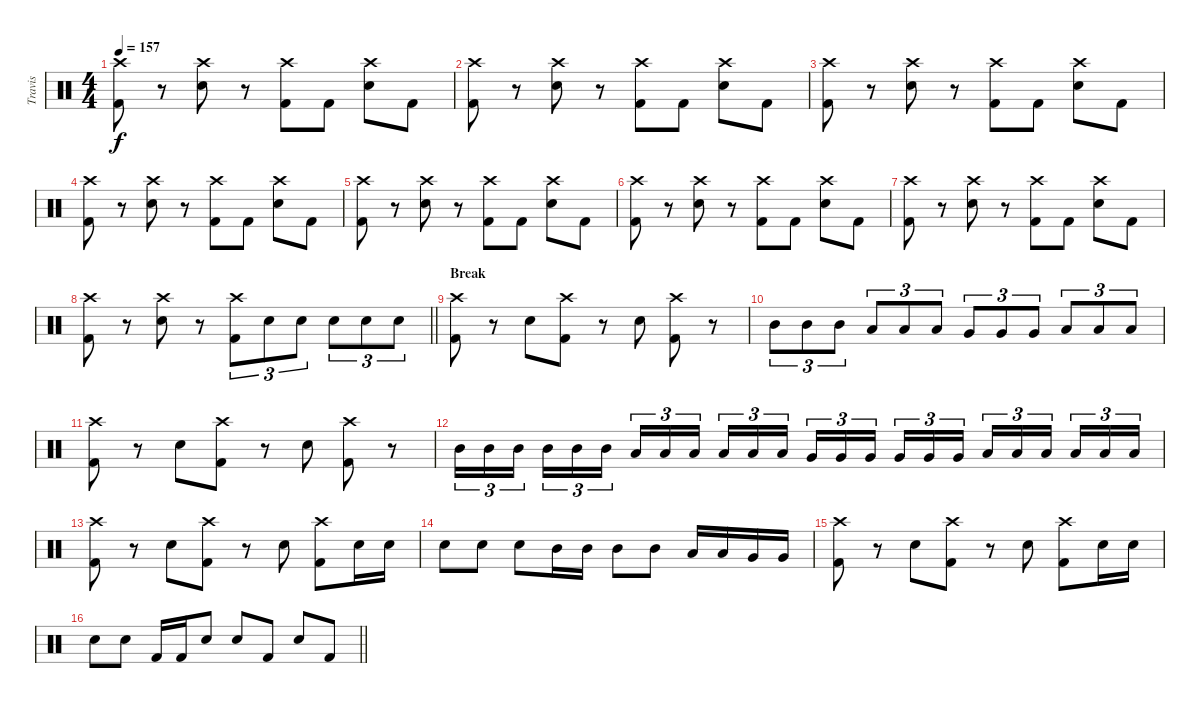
\track ("Travis" "Travis") {instrument percussion}
\staff {score}
\articulation defaults
\ts (4 4)
\tempo 157
\clef neutral
\ks c
("Crash high (hit)" "Kick (hit) 2").8{dy f} r.8 ("Crash high (hit)" "Electric Snare (hit)").8 r.8 ("Crash high (hit)" "Kick (hit) 2").8 "Kick (hit) 2".8 ("Crash high (hit)" "Electric Snare (hit)").8 "Kick (hit) 2".8 |
("Crash high (hit)" "Kick (hit) 2").8 r.8 ("Crash high (hit)" "Electric Snare (hit)").8 r.8 ("Crash high (hit)" "Kick (hit) 2").8 "Kick (hit) 2".8 ("Crash high (hit)" "Electric Snare (hit)").8 "Kick (hit) 2".8 |
("Crash high (hit)" "Kick (hit) 2").8 r.8 ("Crash high (hit)" "Electric Snare (hit)").8 r.8 ("Crash high (hit)" "Kick (hit) 2").8 "Kick (hit) 2".8 ("Crash high (hit)" "Electric Snare (hit)").8 "Kick (hit) 2".8 |
("Crash high (hit)" "Kick (hit) 2").8 r.8 ("Crash high (hit)" "Electric Snare (hit)").8 r.8 ("Crash high (hit)" "Kick (hit) 2").8 "Kick (hit) 2".8 ("Crash high (hit)" "Electric Snare (hit)").8 "Kick (hit) 2".8 |
("Crash high (hit)" "Kick (hit) 2").8 r.8 ("Crash high (hit)" "Electric Snare (hit)").8 r.8 ("Crash high (hit)" "Kick (hit) 2").8 "Kick (hit) 2".8 ("Crash high (hit)" "Electric Snare (hit)").8 "Kick (hit) 2".8 |
("Crash high (hit)" "Kick (hit) 2").8 r.8 ("Crash high (hit)" "Electric Snare (hit)").8 r.8 ("Crash high (hit)" "Kick (hit) 2").8 "Kick (hit) 2".8 ("Crash high (hit)" "Electric Snare (hit)").8 "Kick (hit) 2".8 |
("Crash high (hit)" "Kick (hit) 2").8 r.8 ("Crash high (hit)" "Electric Snare (hit)").8 r.8 ("Crash high (hit)" "Kick (hit) 2").8 "Kick (hit) 2".8 ("Crash high (hit)" "Electric Snare (hit)").8 "Kick (hit) 2".8 |
\barLineRight lightlight
("Crash high (hit)" "Kick (hit) 2").8 r.8 ("Crash high (hit)" "Electric Snare (hit)").8 r.8 ("Crash high (hit)" "Kick (hit) 2").8{tu (3 2)} "Electric Snare (hit)".8{tu (3 2)} "Electric Snare (hit)".8{tu (3 2)} "Electric Snare (hit)".8{tu (3 2)} "Electric Snare (hit)".8{tu (3 2)} "Electric Snare (hit)".8{tu (3 2)} |
\section ("" "Break")
("Crash high (hit)" "Kick (hit) 2").8 r.8 "Electric Snare (hit)".8 ("Crash high (hit)" "Kick (hit) 2").8 r.8 "Electric Snare (hit)".8 ("Crash high (hit)" "Kick (hit) 2").8 r.8 |
"Mid Tom (hit)".8{tu (3 2)} "Mid Tom (hit)".8{tu (3 2)} "Mid Tom (hit)".8{tu (3 2)} "Low Tom (hit)".8{tu (3 2)} "Low Tom (hit)".8{tu (3 2)} "Low Tom (hit)".8{tu (3 2)} "Very Low Tom (hit)".8{tu (3 2)} "Very Low Tom (hit)".8{tu (3 2)} "Very Low Tom (hit)".8{tu (3 2)} "Low Floor Tom (hit)".8{tu (3 2)} "Low Floor Tom (hit)".8{tu (3 2)} "Low Floor Tom (hit)".8{tu (3 2)} |
("Crash high (hit)" "Kick (hit) 2").8 r.8 "Electric Snare (hit)".8 ("Crash high (hit)" "Kick (hit) 2").8 r.8 "Electric Snare (hit)".8 ("Crash high (hit)" "Kick (hit) 2").8 r.8 |
"Mid Tom (hit)".16{tu (3 2)} "Mid Tom (hit)".16{tu (3 2)} "Mid Tom (hit)".16{tu (3 2) beam splitsecondary} "Mid Tom (hit)".16{tu (3 2)} "Mid Tom (hit)".16{tu (3 2)} "Mid Tom (hit)".16{tu (3 2)} "Low Tom (hit)".16{tu (3 2)} "Low Tom (hit)".16{tu (3 2)} "Low Tom (hit)".16{tu (3 2) beam splitsecondary} "Low Tom (hit)".16{tu (3 2)} "Low Tom (hit)".16{tu (3 2)} "Low Tom (hit)".16{tu (3 2)} "Very Low Tom (hit)".16{tu (3 2)} "Very Low Tom (hit)".16{tu (3 2)} "Very Low Tom (hit)".16{tu (3 2) beam splitsecondary} "Very Low Tom (hit)".16{tu (3 2)} "Very Low Tom (hit)".16{tu (3 2)} "Very Low Tom (hit)".16{tu (3 2)} "Low Floor Tom (hit)".16{tu (3 2)} "Low Floor Tom (hit)".16{tu (3 2)} "Low Floor Tom (hit)".16{tu (3 2) beam splitsecondary} "Low Floor Tom (hit)".16{tu (3 2)} "Low Floor Tom (hit)".16{tu (3 2)} "Low Floor Tom (hit)".16{tu (3 2)} |
("Crash high (hit)" "Kick (hit) 2").8 r.8 "Electric Snare (hit)".8 ("Crash high (hit)" "Kick (hit) 2").8 r.8 "Electric Snare (hit)".8 ("Crash high (hit)" "Kick (hit) 2").8 "Electric Snare (hit)".16 "Electric Snare (hit)".16 |
"Electric Snare (hit)".8 "Electric Snare (hit)".8 "Electric Snare (hit)".8 "Mid Tom (hit)".16 "Mid Tom (hit)".16 "Mid Tom (hit)".8 "Mid Tom (hit)".8 "Low Tom (hit)".16 "Low Tom (hit)".16 "Very Low Tom (hit)".16 "Very Low Tom (hit)".16 |
("Crash high (hit)" "Kick (hit) 2").8 r.8 "Electric Snare (hit)".8 ("Crash high (hit)" "Kick (hit) 2").8 r.8 "Electric Snare (hit)".8 ("Crash high (hit)" "Kick (hit) 2").8 "Electric Snare (hit)".16 "Electric Snare (hit)".16 |
\barLineRight lightlight "Electric Snare (hit)".8 "Electric Snare (hit)".8 "Kick (hit) 2".16 "Kick (hit) 2".16 "Electric Snare (hit)".8 "Electric Snare (hit)".8 "Kick (hit) 2".8 "Electric Snare (hit)".8 "Kick (hit) 2".8
